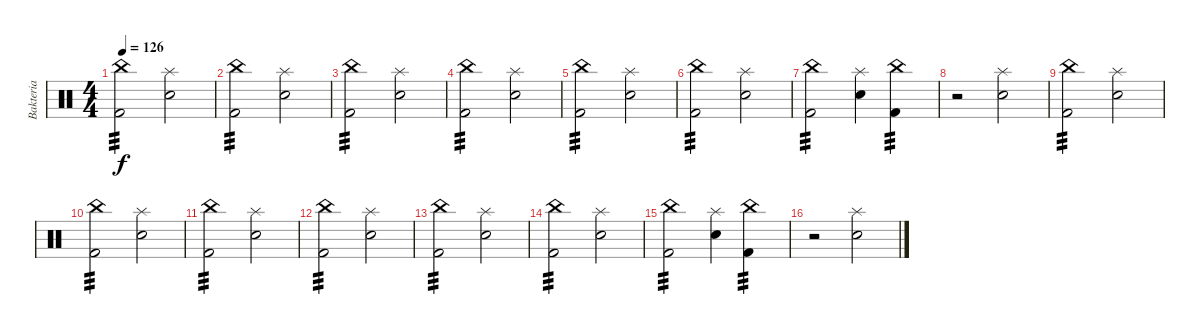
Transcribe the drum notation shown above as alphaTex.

\track ("Bakteria" "Bakteria") {instrument percussion}
\staff {score}
\articulation defaults
\ts (4 4)
\tempo 126
\clef neutral
\ks c
("Kick (hit) 2" "China (hit)").2{tp 3 dy f volume 0} ("Splash (hit)" "Snare (hit) 2").2{volume 13} |
("Kick (hit) 2" "China (hit)").2{tp 3 volume 0} ("Splash (hit)" "Snare (hit) 2").2{volume 13} |
("Kick (hit) 2" "China (hit)").2{tp 3 volume 0} ("Splash (hit)" "Snare (hit) 2").2{volume 13} |
("Kick (hit) 2" "China (hit)").2{tp 3 volume 0} ("Splash (hit)" "Snare (hit) 2").2{volume 13} |
("Kick (hit) 2" "China (hit)").2{tp 3 volume 0} ("Splash (hit)" "Snare (hit) 2").2{volume 13} |
("Kick (hit) 2" "China (hit)").2{tp 3 volume 0} ("Splash (hit)" "Snare (hit) 2").2{volume 13} |
("Kick (hit) 2" "China (hit)").2{tp 3 volume 0} ("Splash (hit)" "Snare (hit) 2").4{volume 13} ("Kick (hit) 2" "China (hit)").4{tp 3 volume 0} |
r.2{volume 0} ("Splash (hit)" "Snare (hit) 2").2{volume 13} |
("Kick (hit) 2" "China (hit)").2{tp 3 volume 0} ("Splash (hit)" "Snare (hit) 2").2{volume 13} |
("Kick (hit) 2" "China (hit)").2{tp 3 volume 0} ("Splash (hit)" "Snare (hit) 2").2{volume 13} |
("Kick (hit) 2" "China (hit)").2{tp 3 volume 0} ("Splash (hit)" "Snare (hit) 2").2{volume 13} |
("Kick (hit) 2" "China (hit)").2{tp 3 volume 0} ("Splash (hit)" "Snare (hit) 2").2{volume 13} |
("Kick (hit) 2" "China (hit)").2{tp 3 volume 0} ("Splash (hit)" "Snare (hit) 2").2{volume 13} |
("Kick (hit) 2" "China (hit)").2{tp 3 volume 0} ("Splash (hit)" "Snare (hit) 2").2{volume 13} |
("Kick (hit) 2" "China (hit)").2{tp 3 volume 0} ("Splash (hit)" "Snare (hit) 2").4{volume 13} ("Kick (hit) 2" "China (hit)").4{tp 3 volume 0} |
r.2{volume 0} ("Splash (hit)" "Snare (hit) 2").2{volume 13}
